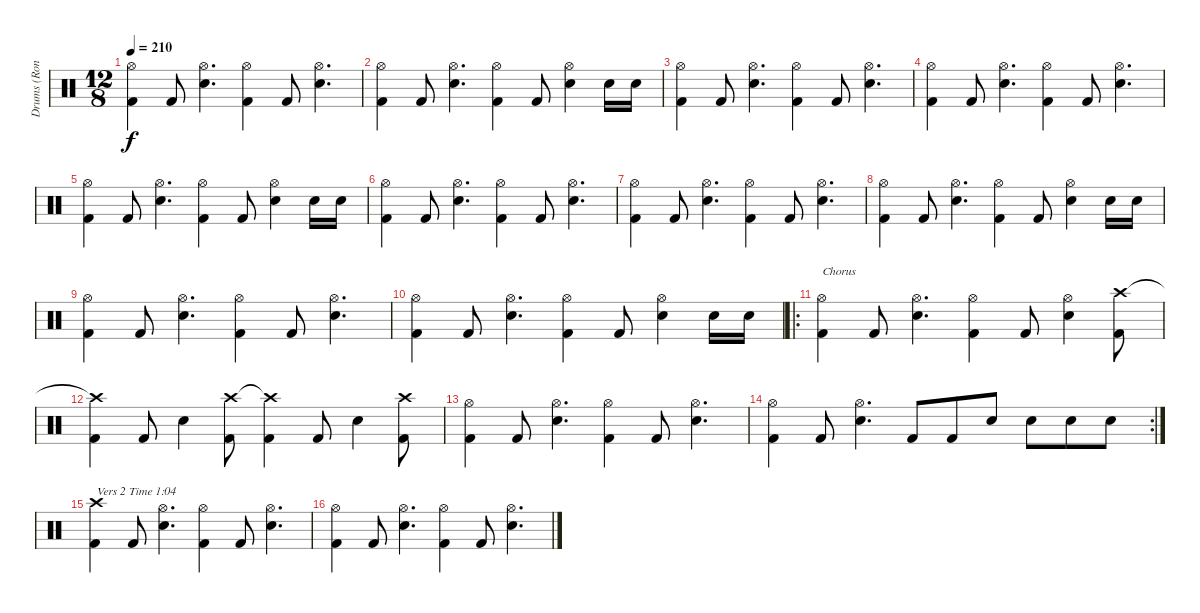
\track ("Drums (Ronny)" "Drums (Ron") {instrument percussion}
\staff {score}
\articulation defaults
\ts (12 8)
\tempo 210
\clef neutral
\ks c
("Hi-Hat (open)" "Kick (hit) 2").4{dy f} "Kick (hit) 2".8 ("Hi-Hat (open)" "Snare (hit) 2").4{d} ("Hi-Hat (open)" "Kick (hit) 2").4 "Kick (hit) 2".8 ("Hi-Hat (open)" "Snare (hit) 2").4{d} |
("Hi-Hat (open)" "Kick (hit) 2").4 "Kick (hit) 2".8 ("Hi-Hat (open)" "Snare (hit) 2").4{d} ("Hi-Hat (open)" "Kick (hit) 2").4 "Kick (hit) 2".8 ("Hi-Hat (open)" "Snare (hit) 2").4 "Snare (hit) 2".16 "Snare (hit) 2".16 |
("Hi-Hat (open)" "Kick (hit) 2").4 "Kick (hit) 2".8 ("Hi-Hat (open)" "Snare (hit) 2").4{d} ("Hi-Hat (open)" "Kick (hit) 2").4 "Kick (hit) 2".8 ("Hi-Hat (open)" "Snare (hit) 2").4{d} |
("Hi-Hat (open)" "Kick (hit) 2").4 "Kick (hit) 2".8 ("Hi-Hat (open)" "Snare (hit) 2").4{d} ("Hi-Hat (open)" "Kick (hit) 2").4 "Kick (hit) 2".8 ("Hi-Hat (open)" "Snare (hit) 2").4{d} |
("Hi-Hat (open)" "Kick (hit) 2").4 "Kick (hit) 2".8 ("Hi-Hat (open)" "Snare (hit) 2").4{d} ("Hi-Hat (open)" "Kick (hit) 2").4 "Kick (hit) 2".8 ("Hi-Hat (open)" "Snare (hit) 2").4 "Snare (hit) 2".16 "Snare (hit) 2".16 |
("Hi-Hat (open)" "Kick (hit) 2").4 "Kick (hit) 2".8 ("Hi-Hat (open)" "Snare (hit) 2").4{d} ("Hi-Hat (open)" "Kick (hit) 2").4 "Kick (hit) 2".8 ("Hi-Hat (open)" "Snare (hit) 2").4{d} |
("Hi-Hat (open)" "Kick (hit) 2").4 "Kick (hit) 2".8 ("Hi-Hat (open)" "Snare (hit) 2").4{d} ("Hi-Hat (open)" "Kick (hit) 2").4 "Kick (hit) 2".8 ("Hi-Hat (open)" "Snare (hit) 2").4{d} |
("Hi-Hat (open)" "Kick (hit) 2").4 "Kick (hit) 2".8 ("Hi-Hat (open)" "Snare (hit) 2").4{d} ("Hi-Hat (open)" "Kick (hit) 2").4 "Kick (hit) 2".8 ("Hi-Hat (open)" "Snare (hit) 2").4 "Snare (hit) 2".16 "Snare (hit) 2".16 |
("Hi-Hat (open)" "Kick (hit) 2").4 "Kick (hit) 2".8 ("Hi-Hat (open)" "Snare (hit) 2").4{d} ("Hi-Hat (open)" "Kick (hit) 2").4 "Kick (hit) 2".8 ("Hi-Hat (open)" "Snare (hit) 2").4{d} |
("Hi-Hat (open)" "Kick (hit) 2").4 "Kick (hit) 2".8 ("Hi-Hat (open)" "Snare (hit) 2").4{d} ("Hi-Hat (open)" "Kick (hit) 2").4 "Kick (hit) 2".8 ("Hi-Hat (open)" "Snare (hit) 2").4 "Snare (hit) 2".16 "Snare (hit) 2".16 |
\ro
("Hi-Hat (open)" "Kick (hit) 2").4{txt "Chorus"} "Kick (hit) 2".8 ("Hi-Hat (open)" "Snare (hit) 2").4{d} ("Hi-Hat (open)" "Kick (hit) 2").4 "Kick (hit) 2".8 ("Hi-Hat (open)" "Snare (hit) 2").4 ("Crash high (hit)" "Kick (hit) 2").8 |
("Crash high (hit)"{t} "Kick (hit) 2").4 "Kick (hit) 2".8 "Snare (hit) 2".4 ("Crash high (hit)" "Kick (hit) 2").8 ("Crash high (hit)"{t} "Kick (hit) 2").4 "Kick (hit) 2".8 "Snare (hit) 2".4 ("Crash high (hit)" "Kick (hit) 2").8 |
("Hi-Hat (open)" "Kick (hit) 2").4 "Kick (hit) 2".8 ("Hi-Hat (open)" "Snare (hit) 2").4{d} ("Hi-Hat (open)" "Kick (hit) 2").4 "Kick (hit) 2".8 ("Hi-Hat (open)" "Snare (hit) 2").4{d} |
\rc 2
("Hi-Hat (open)" "Kick (hit) 2").4 "Kick (hit) 2".8 ("Hi-Hat (open)" "Snare (hit) 2").4{d} "Kick (hit) 2".8 "Kick (hit) 2".8 "Snare (hit) 2".8 "Snare (hit) 2".8 "Snare (hit) 2".8 "Snare (hit) 2".8 |
("Crash high (hit)" "Kick (hit) 2").4{txt "Vers 2 Time 1:04"} "Kick (hit) 2".8 ("Hi-Hat (open)" "Snare (hit) 2").4{d} ("Hi-Hat (open)" "Kick (hit) 2").4 "Kick (hit) 2".8 ("Hi-Hat (open)" "Snare (hit) 2").4{d} |
("Hi-Hat (open)" "Kick (hit) 2").4 "Kick (hit) 2".8 ("Hi-Hat (open)" "Snare (hit) 2").4{d} ("Hi-Hat (open)" "Kick (hit) 2").4 "Kick (hit) 2".8 ("Hi-Hat (open)" "Snare (hit) 2").4{d}
